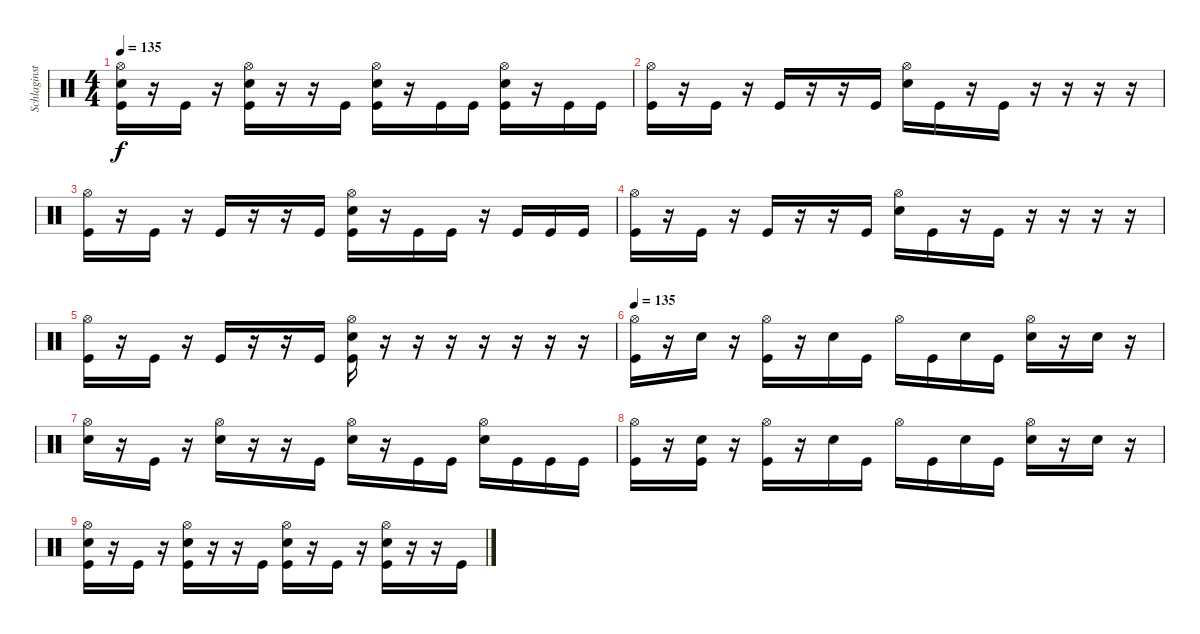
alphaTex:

\track ("Schlaginstrumente - Auswahl" "Schlaginst") {instrument percussion}
\staff {score}
\articulation defaults
\ts (4 4)
\tempo 135
\clef neutral
\ks c
("Hi-Hat (open)" "Electric Snare (hit)" "Kick (hit)").16{dy f} r.16 "Kick (hit)".16 r.16 ("Hi-Hat (open)" "Electric Snare (hit)" "Kick (hit)").16 r.16 r.16 "Kick (hit)".16 ("Hi-Hat (open)" "Electric Snare (hit)" "Kick (hit)").16 r.16 "Kick (hit)".16 "Kick (hit)".16 ("Hi-Hat (open)" "Electric Snare (hit)" "Kick (hit)").16 r.16 "Kick (hit)".16 "Kick (hit)".16 |
("Hi-Hat (open)" "Kick (hit)").16 r.16 "Kick (hit)".16 r.16 "Kick (hit)".16 r.16 r.16 "Kick (hit)".16 ("Hi-Hat (open)" "Electric Snare (hit)").16 "Kick (hit)".16 r.16 "Kick (hit)".16 r.16 r.16 r.16 r.16 |
("Hi-Hat (open)" "Kick (hit)").16 r.16 "Kick (hit)".16 r.16 "Kick (hit)".16 r.16 r.16 "Kick (hit)".16 ("Hi-Hat (open)" "Electric Snare (hit)" "Kick (hit)").16 r.16 "Kick (hit)".16 "Kick (hit)".16 r.16 "Kick (hit)".16 "Kick (hit)".16 "Kick (hit)".16 |
("Hi-Hat (open)" "Kick (hit)").16 r.16 "Kick (hit)".16 r.16 "Kick (hit)".16 r.16 r.16 "Kick (hit)".16 ("Hi-Hat (open)" "Electric Snare (hit)").16 "Kick (hit)".16 r.16 "Kick (hit)".16 r.16 r.16 r.16 r.16 |
("Hi-Hat (open)" "Kick (hit)").16 r.16 "Kick (hit)".16 r.16 "Kick (hit)".16 r.16 r.16 "Kick (hit)".16 ("Hi-Hat (open)" "Electric Snare (hit)" "Kick (hit)").16 r.16 r.16 r.16 r.16 r.16 r.16 r.16 |
\tempo 135
("Hi-Hat (open)" "Kick (hit)").16 r.16 "Electric Snare (hit)".16 r.16 ("Hi-Hat (open)" "Kick (hit)").16 r.16 "Electric Snare (hit)".16 "Kick (hit)".16 "Hi-Hat (open)".16 "Kick (hit)".16 "Electric Snare (hit)".16 "Kick (hit)".16 ("Hi-Hat (open)" "Electric Snare (hit)").16 r.16 "Electric Snare (hit)".16 r.16 |
("Hi-Hat (open)" "Electric Snare (hit)").16 r.16 "Kick (hit)".16 r.16 ("Hi-Hat (open)" "Electric Snare (hit)").16 r.16 r.16 "Kick (hit)".16 ("Hi-Hat (open)" "Electric Snare (hit)").16 r.16 "Kick (hit)".16 "Kick (hit)".16 ("Hi-Hat (open)" "Electric Snare (hit)").16 "Kick (hit)".16 "Kick (hit)".16 "Kick (hit)".16 |
("Hi-Hat (open)" "Kick (hit)").16 r.16 ("Electric Snare (hit)" "Kick (hit)").16 r.16 ("Hi-Hat (open)" "Kick (hit)").16 r.16 "Electric Snare (hit)".16 "Kick (hit)".16 "Hi-Hat (open)".16 "Kick (hit)".16 "Electric Snare (hit)".16 "Kick (hit)".16 ("Hi-Hat (open)" "Electric Snare (hit)").16 r.16 "Electric Snare (hit)".16 r.16 |
("Hi-Hat (open)" "Electric Snare (hit)" "Kick (hit)").16 r.16 "Kick (hit)".16 r.16 ("Hi-Hat (open)" "Electric Snare (hit)" "Kick (hit)").16 r.16 r.16 "Kick (hit)".16 ("Hi-Hat (open)" "Electric Snare (hit)" "Kick (hit)").16 r.16 "Kick (hit)".16 r.16 ("Hi-Hat (open)" "Electric Snare (hit)" "Kick (hit)").16 r.16 r.16 "Kick (hit)".16
